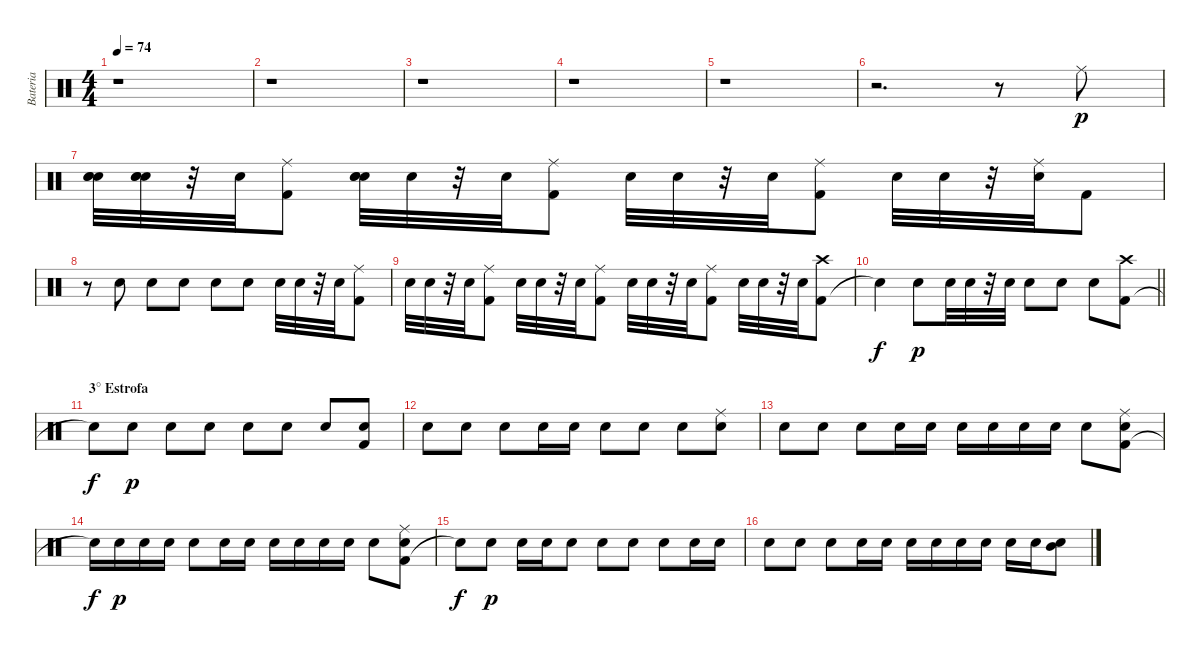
\track ("Bateria" "Bateria") {instrument percussion}
\staff {score}
\articulation defaults
\ts (4 4)
\tempo 74
\clef neutral
\ks c
r.1{dy p} |
r.1 |
r.1 |
r.1 |
r.1 |
r.2{d} r.8 "Ride (middle)".8 |
("Snare (hit) 2" "Snare (hit) 2" "Snare (hit) 2").32 ("Snare (hit) 2" "Snare (hit) 2" "Snare (hit) 2").32 r.32 "Snare (hit) 2".32 ("Kick (hit) 2" "Ride (middle)").8 ("Snare (hit) 2" "Snare (hit) 2" "Snare (hit) 2").32 "Snare (hit) 2".32 r.32 "Snare (hit) 2".32 ("Kick (hit) 2" "Ride (middle)").8 "Snare (hit) 2".32 "Snare (hit) 2".32 r.32 "Snare (hit) 2".32 ("Kick (hit) 2" "Ride (middle)").8 "Snare (hit) 2".32 "Snare (hit) 2".32 r.32 ("Snare (hit) 2" "Ride (middle)").32 "Kick (hit) 2".8 |
r.8 "Snare (hit) 2".8 "Snare (hit) 2".8 "Snare (hit) 2".8 "Snare (hit) 2".8 "Snare (hit) 2".8 "Snare (hit) 2".32 "Snare (hit) 2".32 r.32 "Snare (hit) 2".32 ("Kick (hit) 2" "Ride (middle)").8 |
"Snare (hit) 2".32 "Snare (hit) 2".32 r.32 "Snare (hit) 2".32 ("Kick (hit) 2" "Ride (middle)").8 "Snare (hit) 2".32 "Snare (hit) 2".32 r.32 "Snare (hit) 2".32 ("Kick (hit) 2" "Ride (middle)").8 "Snare (hit) 2".32 "Snare (hit) 2".32 r.32 "Snare (hit) 2".32 ("Kick (hit) 2" "Ride (middle)").8 "Snare (hit) 2".32 "Snare (hit) 2".32 r.32 "Snare (hit) 2".32 ("Kick (hit) 2" "Crash high (hit)").8 |
\barLineRight lightlight "Snare (hit)"{t}.4{dy f} "Snare (hit) 2".8{dy p} "Snare (hit) 2".32 "Snare (hit) 2".32
r.32 "Snare (hit) 2".32 "Snare (hit) 2".8 "Snare (hit) 2".8 "Snare (hit) 2".8 ("Kick (hit) 2" "Crash high (hit)").8 |
\section ("" "3° Estrofa")
"Snare (hit)"{t}.8{dy f} "Snare (hit) 2".8{dy p} "Snare (hit) 2".8 "Snare (hit) 2".8 "Snare (hit) 2".8 "Snare (hit) 2".8 "Snare (hit) 2".8 ("Kick (hit) 2" "Snare (hit) 2").8 |
"Snare (hit) 2".8 "Snare (hit) 2".8 "Snare (hit) 2".8 "Snare (hit) 2".16 "Snare (hit) 2".16 "Snare (hit) 2".8 "Snare (hit) 2".8 "Snare (hit) 2".8 ("Snare (hit) 2" "Ride (middle)").8 |
"Snare (hit) 2".8 "Snare (hit) 2".8 "Snare (hit) 2".8 "Snare (hit) 2".16 "Snare (hit) 2".16 "Snare (hit) 2".16 "Snare (hit) 2".16 "Snare (hit) 2".16 "Snare (hit) 2".16 "Snare (hit) 2".8 ("Kick (hit) 2" "Snare (hit) 2" "Ride (middle)").8 |
"Snare (hit)"{t}.16{dy f} "Snare (hit) 2".16{dy p} "Snare (hit) 2".16 "Snare (hit) 2".16 "Snare (hit) 2".8 "Snare (hit) 2".16 "Snare (hit) 2".16 "Snare (hit) 2".16 "Snare (hit) 2".16 "Snare (hit) 2".16 "Snare (hit) 2".16 "Snare (hit) 2".8 ("Kick (hit) 2" "Snare (hit) 2" "Ride (middle)").8 |
"Snare (hit)"{t}.8{dy f} "Snare (hit) 2".8{dy p} "Snare (hit) 2".16 "Snare (hit) 2".16 "Snare (hit) 2".8 "Snare (hit) 2".8 "Snare (hit) 2".8 "Snare (hit) 2".8 "Snare (hit) 2".16 "Snare (hit) 2".16 |
"Snare (hit) 2".8 "Snare (hit) 2".8 "Snare (hit) 2".8 "Snare (hit) 2".16 "Snare (hit) 2".16 "Snare (hit) 2".16 "Snare (hit) 2".16 "Snare (hit) 2".16 "Snare (hit) 2".16 "Snare (hit) 2".16 "Snare (hit) 2".16 ("Snare (hit) 2" "Mid Tom (hit)").8
